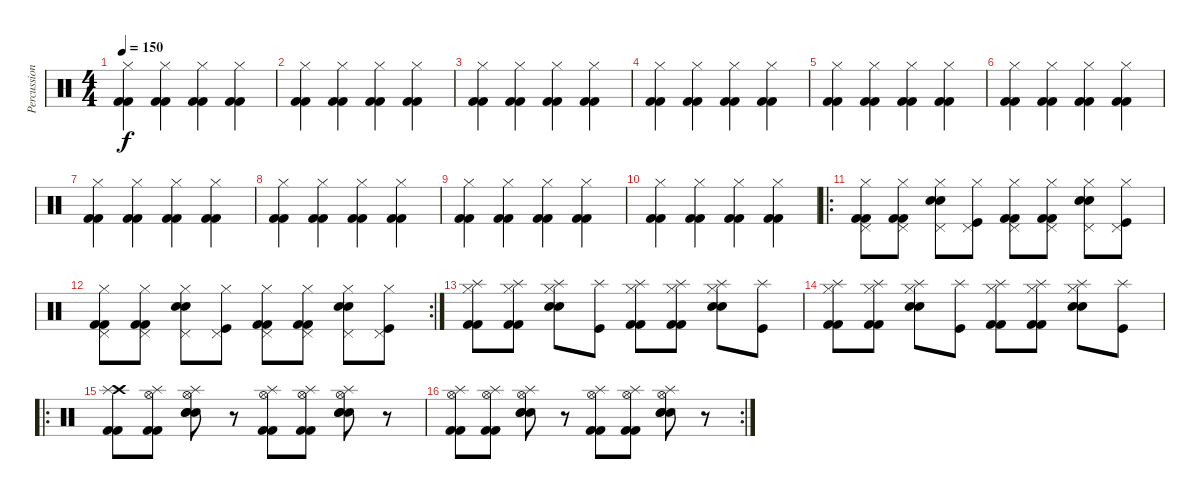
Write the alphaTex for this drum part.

\track ("Percussion" "Percussion") {instrument percussion}
\staff {score}
\articulation defaults
\ts (4 4)
\tempo 150
\clef neutral
\ks c
("Hi-Hat (closed)" "Kick (hit) 2" "Kick (hit) 2").4{dy f} ("Hi-Hat (closed)" "Kick (hit) 2" "Kick (hit) 2").4 ("Hi-Hat (closed)" "Kick (hit) 2" "Kick (hit) 2").4 ("Hi-Hat (closed)" "Kick (hit) 2" "Kick (hit) 2").4 |
("Hi-Hat (closed)" "Kick (hit) 2" "Kick (hit) 2").4 ("Hi-Hat (closed)" "Kick (hit) 2" "Kick (hit) 2").4 ("Hi-Hat (closed)" "Kick (hit) 2" "Kick (hit) 2").4 ("Hi-Hat (closed)" "Kick (hit) 2" "Kick (hit) 2").4 |
("Hi-Hat (closed)" "Kick (hit) 2" "Kick (hit) 2").4 ("Hi-Hat (closed)" "Kick (hit) 2" "Kick (hit) 2").4 ("Hi-Hat (closed)" "Kick (hit) 2" "Kick (hit) 2").4 ("Hi-Hat (closed)" "Kick (hit) 2" "Kick (hit) 2").4 |
("Hi-Hat (closed)" "Kick (hit) 2" "Kick (hit) 2").4 ("Hi-Hat (closed)" "Kick (hit) 2" "Kick (hit) 2").4 ("Hi-Hat (closed)" "Kick (hit) 2" "Kick (hit) 2").4 ("Hi-Hat (closed)" "Kick (hit) 2" "Kick (hit) 2").4 |
("Hi-Hat (closed)" "Kick (hit) 2" "Kick (hit) 2").4 ("Hi-Hat (closed)" "Kick (hit) 2" "Kick (hit) 2").4 ("Hi-Hat (closed)" "Kick (hit) 2" "Kick (hit) 2").4 ("Hi-Hat (closed)" "Kick (hit) 2" "Kick (hit) 2").4 |
("Hi-Hat (closed)" "Kick (hit) 2" "Kick (hit) 2").4 ("Hi-Hat (closed)" "Kick (hit) 2" "Kick (hit) 2").4 ("Hi-Hat (closed)" "Kick (hit) 2" "Kick (hit) 2").4 ("Hi-Hat (closed)" "Kick (hit) 2" "Kick (hit) 2").4 |
("Hi-Hat (closed)" "Kick (hit) 2" "Kick (hit) 2").4 ("Hi-Hat (closed)" "Kick (hit) 2" "Kick (hit) 2").4 ("Hi-Hat (closed)" "Kick (hit) 2" "Kick (hit) 2").4 ("Hi-Hat (closed)" "Kick (hit) 2" "Kick (hit) 2").4 |
("Hi-Hat (closed)" "Kick (hit) 2" "Kick (hit) 2").4 ("Hi-Hat (closed)" "Kick (hit) 2" "Kick (hit) 2").4 ("Hi-Hat (closed)" "Kick (hit) 2" "Kick (hit) 2").4 ("Hi-Hat (closed)" "Kick (hit) 2" "Kick (hit) 2").4 |
("Hi-Hat (closed)" "Kick (hit) 2" "Kick (hit) 2").4 ("Hi-Hat (closed)" "Kick (hit) 2" "Kick (hit) 2").4 ("Hi-Hat (closed)" "Kick (hit) 2" "Kick (hit) 2").4 ("Hi-Hat (closed)" "Kick (hit) 2" "Kick (hit) 2").4 |
("Hi-Hat (closed)" "Kick (hit) 2" "Kick (hit) 2").4 ("Hi-Hat (closed)" "Kick (hit) 2" "Kick (hit) 2").4 ("Hi-Hat (closed)" "Kick (hit) 2" "Kick (hit) 2").4 ("Hi-Hat (closed)" "Kick (hit) 2" "Kick (hit) 2").4 |
\ro
("Hi-Hat (closed)" "Pedal Hi-Hat (hit)" "Kick (hit) 2" "Kick (hit) 2").8 ("Hi-Hat (closed)" "Pedal Hi-Hat (hit)" "Kick (hit) 2" "Kick (hit) 2").8 ("Hi-Hat (closed)" "Pedal Hi-Hat (hit)" "Electric Snare (hit)" "Electric Snare (hit)").8 ("Hi-Hat (closed)" "Pedal Hi-Hat (hit)" "Kick (hit)").8 ("Hi-Hat (closed)" "Pedal Hi-Hat (hit)" "Kick (hit) 2" "Kick (hit) 2").8 ("Hi-Hat (closed)" "Pedal Hi-Hat (hit)" "Kick (hit) 2" "Kick (hit) 2").8 ("Hi-Hat (closed)" "Pedal Hi-Hat (hit)" "Electric Snare (hit)" "Electric Snare (hit)").8 ("Hi-Hat (closed)" "Pedal Hi-Hat (hit)" "Kick (hit)").8 |
\rc 2
("Pedal Hi-Hat (hit)" "Hi-Hat (closed)" "Kick (hit) 2" "Kick (hit) 2").8 ("Pedal Hi-Hat (hit)" "Hi-Hat (closed)" "Kick (hit) 2" "Kick (hit) 2").8 ("Pedal Hi-Hat (hit)" "Hi-Hat (closed)" "Electric Snare (hit)" "Electric Snare (hit)").8 ("Pedal Hi-Hat (hit)" "Hi-Hat (closed)" "Kick (hit)").8 ("Pedal Hi-Hat (hit)" "Hi-Hat (closed)" "Kick (hit) 2" "Kick (hit) 2").8 ("Pedal Hi-Hat (hit)" "Hi-Hat (closed)" "Kick (hit) 2" "Kick (hit) 2").8 ("Pedal Hi-Hat (hit)" "Hi-Hat (closed)" "Electric Snare (hit)" "Electric Snare (hit)").8 ("Pedal Hi-Hat (hit)" "Hi-Hat (closed)" "Kick (hit)").8 |
("Splash (hit)" "Hi-Hat (closed)" "Kick (hit) 2" "Kick (hit) 2").8 ("Splash (hit)" "Hi-Hat (closed)" "Kick (hit) 2" "Kick (hit) 2").8 ("Splash (hit)" "Hi-Hat (closed)" "Electric Snare (hit)" "Electric Snare (hit)").8 ("Splash (hit)" "Kick (hit)").8 ("Splash (hit)" "Hi-Hat (closed)" "Kick (hit) 2" "Kick (hit) 2").8 ("Splash (hit)" "Hi-Hat (closed)" "Kick (hit) 2" "Kick (hit) 2").8 ("Splash (hit)" "Hi-Hat (closed)" "Electric Snare (hit)" "Electric Snare (hit)").8 ("Splash (hit)" "Kick (hit)").8 |
("Splash (hit)" "Hi-Hat (closed)" "Kick (hit) 2" "Kick (hit) 2").8 ("Splash (hit)" "Hi-Hat (closed)" "Kick (hit) 2" "Kick (hit) 2").8 ("Splash (hit)" "Hi-Hat (closed)" "Electric Snare (hit)" "Electric Snare (hit)").8 ("Splash (hit)" "Kick (hit)").8 ("Splash (hit)" "Hi-Hat (closed)" "Kick (hit) 2" "Kick (hit) 2").8 ("Splash (hit)" "Hi-Hat (closed)" "Kick (hit) 2" "Kick (hit) 2").8 ("Splash (hit)" "Hi-Hat (closed)" "Electric Snare (hit)" "Electric Snare (hit)").8 ("Splash (hit)" "Kick (hit)").8 |
\ro
("Crash high (hit)" "Splash (hit)" "Kick (hit) 2" "Kick (hit) 2").8 ("Hi-Hat (open)" "Splash (hit)" "Kick (hit) 2" "Kick (hit) 2").8 ("Electric Snare (hit)" "Hi-Hat (open)" "Splash (hit)" "Electric Snare (hit)" "Hand Clap (hit)").8 r.8 ("Hi-Hat (open)" "Splash (hit)" "Kick (hit) 2" "Kick (hit) 2").8 ("Hi-Hat (open)" "Splash (hit)" "Kick (hit) 2" "Kick (hit) 2").8 ("Electric Snare (hit)" "Hi-Hat (open)" "Splash (hit)" "Electric Snare (hit)" "Hand Clap (hit)").8 r.8 |
\rc 2
("Hi-Hat (open)" "Splash (hit)" "Kick (hit) 2" "Kick (hit) 2").8 ("Hi-Hat (open)" "Splash (hit)" "Kick (hit) 2" "Kick (hit) 2").8 ("Electric Snare (hit)" "Hi-Hat (open)" "Splash (hit)" "Electric Snare (hit)" "Hand Clap (hit)").8 r.8 ("Hi-Hat (open)" "Splash (hit)" "Kick (hit) 2" "Kick (hit) 2").8 ("Hi-Hat (open)" "Splash (hit)" "Kick (hit) 2" "Kick (hit) 2").8 ("Electric Snare (hit)" "Hi-Hat (open)" "Splash (hit)" "Electric Snare (hit)" "Hand Clap (hit)").8 r.8
